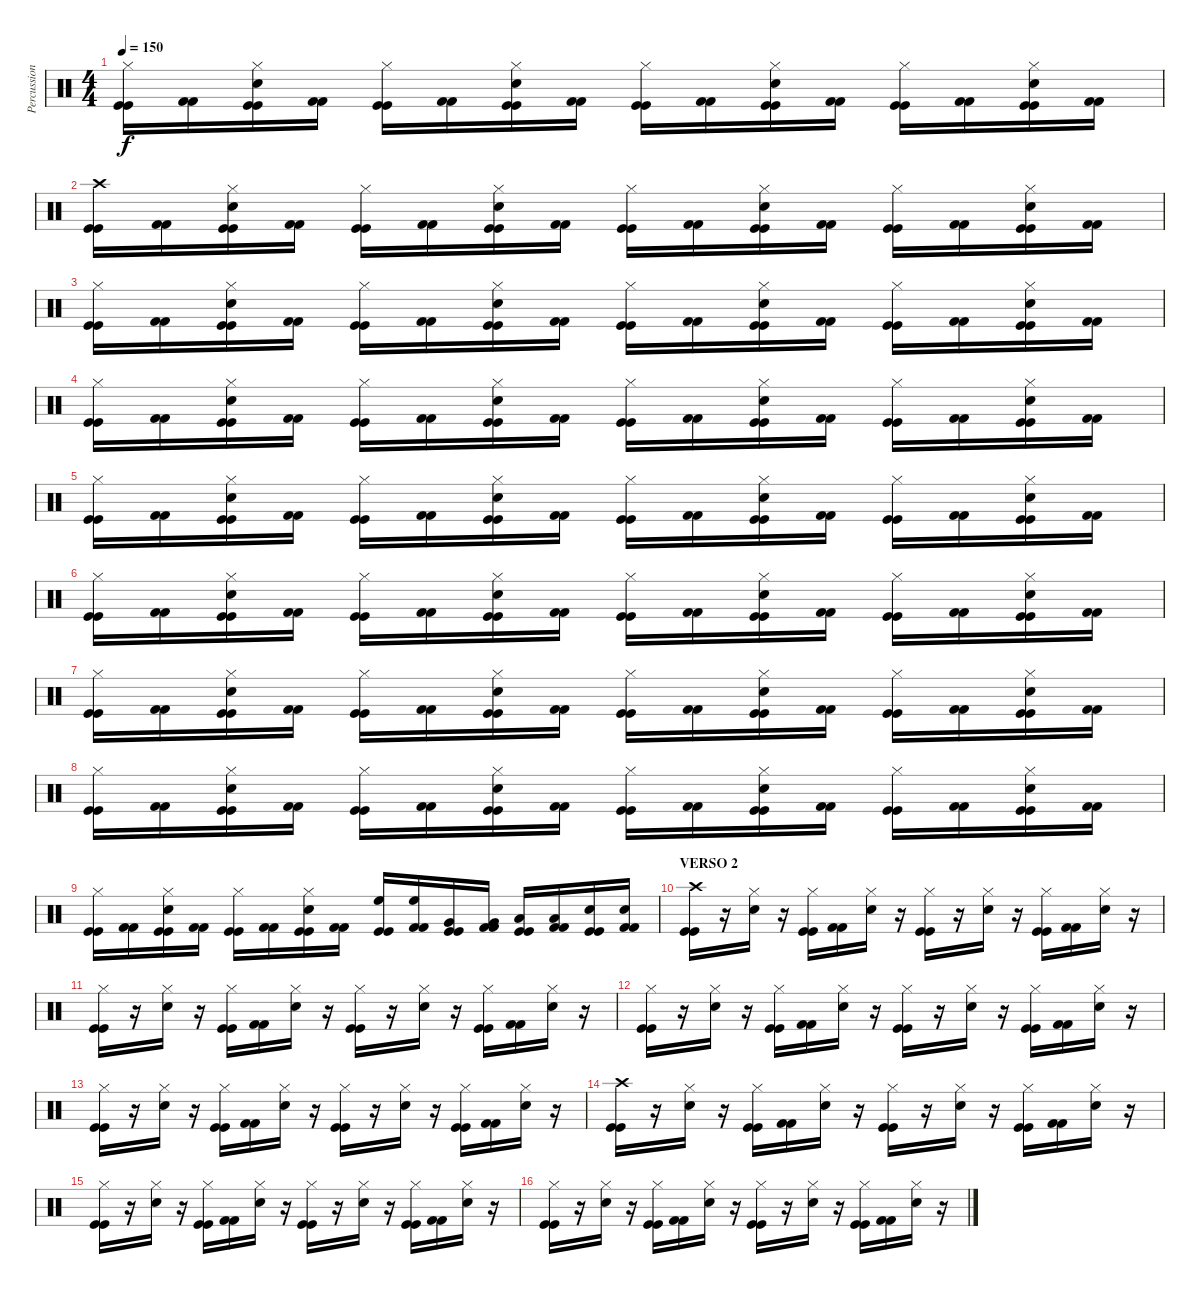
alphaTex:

\track ("Percussion" "Percussion") {instrument percussion}
\staff {score}
\articulation defaults
\ts (4 4)
\tempo 150
\clef neutral
\ks c
("Hi-Hat (closed)" "Kick (hit)" "Kick (hit)").16{dy f} ("Kick (hit) 2" "Kick (hit) 2").16 ("Hi-Hat (closed)" "Electric Snare (hit)" "Kick (hit)" "Kick (hit)").16 ("Kick (hit) 2" "Kick (hit) 2").16 ("Hi-Hat (closed)" "Kick (hit)" "Kick (hit)").16 ("Kick (hit) 2" "Kick (hit) 2").16 ("Hi-Hat (closed)" "Electric Snare (hit)" "Kick (hit)" "Kick (hit)").16 ("Kick (hit) 2" "Kick (hit) 2").16 ("Hi-Hat (closed)" "Kick (hit)" "Kick (hit)").16 ("Kick (hit) 2" "Kick (hit) 2").16 ("Hi-Hat (closed)" "Electric Snare (hit)" "Kick (hit)" "Kick (hit)").16 ("Kick (hit) 2" "Kick (hit) 2").16 ("Hi-Hat (closed)" "Kick (hit)" "Kick (hit)").16 ("Kick (hit) 2" "Kick (hit) 2").16 ("Hi-Hat (closed)" "Electric Snare (hit)" "Kick (hit)" "Kick (hit)").16 ("Kick (hit) 2" "Kick (hit) 2").16 |
("Crash high (hit)" "Kick (hit)" "Kick (hit)").16 ("Kick (hit) 2" "Kick (hit) 2").16 ("Hi-Hat (closed)" "Electric Snare (hit)" "Kick (hit)" "Kick (hit)").16 ("Kick (hit) 2" "Kick (hit) 2").16 ("Hi-Hat (closed)" "Kick (hit)" "Kick (hit)").16 ("Kick (hit) 2" "Kick (hit) 2").16 ("Hi-Hat (closed)" "Electric Snare (hit)" "Kick (hit)" "Kick (hit)").16 ("Kick (hit) 2" "Kick (hit) 2").16 ("Hi-Hat (closed)" "Kick (hit)" "Kick (hit)").16 ("Kick (hit) 2" "Kick (hit) 2").16 ("Hi-Hat (closed)" "Electric Snare (hit)" "Kick (hit)" "Kick (hit)").16 ("Kick (hit) 2" "Kick (hit) 2").16 ("Hi-Hat (closed)" "Kick (hit)" "Kick (hit)").16 ("Kick (hit) 2" "Kick (hit) 2").16 ("Hi-Hat (closed)" "Electric Snare (hit)" "Kick (hit)" "Kick (hit)").16 ("Kick (hit) 2" "Kick (hit) 2").16 |
("Hi-Hat (closed)" "Kick (hit)" "Kick (hit)").16 ("Kick (hit) 2" "Kick (hit) 2").16 ("Hi-Hat (closed)" "Electric Snare (hit)" "Kick (hit)" "Kick (hit)").16 ("Kick (hit) 2" "Kick (hit) 2").16 ("Hi-Hat (closed)" "Kick (hit)" "Kick (hit)").16 ("Kick (hit) 2" "Kick (hit) 2").16 ("Hi-Hat (closed)" "Electric Snare (hit)" "Kick (hit)" "Kick (hit)").16 ("Kick (hit) 2" "Kick (hit) 2").16 ("Hi-Hat (closed)" "Kick (hit)" "Kick (hit)").16 ("Kick (hit) 2" "Kick (hit) 2").16 ("Hi-Hat (closed)" "Electric Snare (hit)" "Kick (hit)" "Kick (hit)").16 ("Kick (hit) 2" "Kick (hit) 2").16 ("Hi-Hat (closed)" "Kick (hit)" "Kick (hit)").16 ("Kick (hit) 2" "Kick (hit) 2").16 ("Hi-Hat (closed)" "Electric Snare (hit)" "Kick (hit)" "Kick (hit)").16 ("Kick (hit) 2" "Kick (hit) 2").16 |
("Hi-Hat (closed)" "Kick (hit)" "Kick (hit)").16 ("Kick (hit) 2" "Kick (hit) 2").16 ("Hi-Hat (closed)" "Electric Snare (hit)" "Kick (hit)" "Kick (hit)").16 ("Kick (hit) 2" "Kick (hit) 2").16 ("Hi-Hat (closed)" "Kick (hit)" "Kick (hit)").16 ("Kick (hit) 2" "Kick (hit) 2").16 ("Hi-Hat (closed)" "Electric Snare (hit)" "Kick (hit)" "Kick (hit)").16 ("Kick (hit) 2" "Kick (hit) 2").16 ("Hi-Hat (closed)" "Kick (hit)" "Kick (hit)").16 ("Kick (hit) 2" "Kick (hit) 2").16 ("Hi-Hat (closed)" "Electric Snare (hit)" "Kick (hit)" "Kick (hit)").16 ("Kick (hit) 2" "Kick (hit) 2").16 ("Hi-Hat (closed)" "Kick (hit)" "Kick (hit)").16 ("Kick (hit) 2" "Kick (hit) 2").16 ("Hi-Hat (closed)" "Electric Snare (hit)" "Kick (hit)" "Kick (hit)").16 ("Kick (hit) 2" "Kick (hit) 2").16 |
("Hi-Hat (closed)" "Kick (hit)" "Kick (hit)").16 ("Kick (hit) 2" "Kick (hit) 2").16 ("Hi-Hat (closed)" "Electric Snare (hit)" "Kick (hit)" "Kick (hit)").16 ("Kick (hit) 2" "Kick (hit) 2").16 ("Hi-Hat (closed)" "Kick (hit)" "Kick (hit)").16 ("Kick (hit) 2" "Kick (hit) 2").16 ("Hi-Hat (closed)" "Electric Snare (hit)" "Kick (hit)" "Kick (hit)").16 ("Kick (hit) 2" "Kick (hit) 2").16 ("Hi-Hat (closed)" "Kick (hit)" "Kick (hit)").16 ("Kick (hit) 2" "Kick (hit) 2").16 ("Hi-Hat (closed)" "Electric Snare (hit)" "Kick (hit)" "Kick (hit)").16 ("Kick (hit) 2" "Kick (hit) 2").16 ("Hi-Hat (closed)" "Kick (hit)" "Kick (hit)").16 ("Kick (hit) 2" "Kick (hit) 2").16 ("Hi-Hat (closed)" "Electric Snare (hit)" "Kick (hit)" "Kick (hit)").16 ("Kick (hit) 2" "Kick (hit) 2").16 |
("Hi-Hat (closed)" "Kick (hit)" "Kick (hit)").16 ("Kick (hit) 2" "Kick (hit) 2").16 ("Hi-Hat (closed)" "Electric Snare (hit)" "Kick (hit)" "Kick (hit)").16 ("Kick (hit) 2" "Kick (hit) 2").16 ("Hi-Hat (closed)" "Kick (hit)" "Kick (hit)").16 ("Kick (hit) 2" "Kick (hit) 2").16 ("Hi-Hat (closed)" "Electric Snare (hit)" "Kick (hit)" "Kick (hit)").16 ("Kick (hit) 2" "Kick (hit) 2").16 ("Hi-Hat (closed)" "Kick (hit)" "Kick (hit)").16 ("Kick (hit) 2" "Kick (hit) 2").16 ("Hi-Hat (closed)" "Electric Snare (hit)" "Kick (hit)" "Kick (hit)").16 ("Kick (hit) 2" "Kick (hit) 2").16 ("Hi-Hat (closed)" "Kick (hit)" "Kick (hit)").16 ("Kick (hit) 2" "Kick (hit) 2").16 ("Hi-Hat (closed)" "Electric Snare (hit)" "Kick (hit)" "Kick (hit)").16 ("Kick (hit) 2" "Kick (hit) 2").16 |
("Hi-Hat (closed)" "Kick (hit)" "Kick (hit)").16 ("Kick (hit) 2" "Kick (hit) 2").16 ("Hi-Hat (closed)" "Electric Snare (hit)" "Kick (hit)" "Kick (hit)").16 ("Kick (hit) 2" "Kick (hit) 2").16 ("Hi-Hat (closed)" "Kick (hit)" "Kick (hit)").16 ("Kick (hit) 2" "Kick (hit) 2").16 ("Hi-Hat (closed)" "Electric Snare (hit)" "Kick (hit)" "Kick (hit)").16 ("Kick (hit) 2" "Kick (hit) 2").16 ("Hi-Hat (closed)" "Kick (hit)" "Kick (hit)").16 ("Kick (hit) 2" "Kick (hit) 2").16 ("Hi-Hat (closed)" "Electric Snare (hit)" "Kick (hit)" "Kick (hit)").16 ("Kick (hit) 2" "Kick (hit) 2").16 ("Hi-Hat (closed)" "Kick (hit)" "Kick (hit)").16 ("Kick (hit) 2" "Kick (hit) 2").16 ("Hi-Hat (closed)" "Electric Snare (hit)" "Kick (hit)" "Kick (hit)").16 ("Kick (hit) 2" "Kick (hit) 2").16 |
("Hi-Hat (closed)" "Kick (hit)" "Kick (hit)").16 ("Kick (hit) 2" "Kick (hit) 2").16 ("Hi-Hat (closed)" "Electric Snare (hit)" "Kick (hit)" "Kick (hit)").16 ("Kick (hit) 2" "Kick (hit) 2").16 ("Hi-Hat (closed)" "Kick (hit)" "Kick (hit)").16 ("Kick (hit) 2" "Kick (hit) 2").16 ("Hi-Hat (closed)" "Electric Snare (hit)" "Kick (hit)" "Kick (hit)").16 ("Kick (hit) 2" "Kick (hit) 2").16 ("Hi-Hat (closed)" "Kick (hit)" "Kick (hit)").16 ("Kick (hit) 2" "Kick (hit) 2").16 ("Hi-Hat (closed)" "Electric Snare (hit)" "Kick (hit)" "Kick (hit)").16 ("Kick (hit) 2" "Kick (hit) 2").16 ("Hi-Hat (closed)" "Kick (hit)" "Kick (hit)").16 ("Kick (hit) 2" "Kick (hit) 2").16 ("Hi-Hat (closed)" "Electric Snare (hit)" "Kick (hit)" "Kick (hit)").16 ("Kick (hit) 2" "Kick (hit) 2").16 |
("Hi-Hat (closed)" "Kick (hit)" "Kick (hit)").16 ("Kick (hit) 2" "Kick (hit) 2").16 ("Hi-Hat (closed)" "Electric Snare (hit)" "Kick (hit)" "Kick (hit)").16 ("Kick (hit) 2" "Kick (hit) 2").16 ("Hi-Hat (closed)" "Kick (hit)" "Kick (hit)").16 ("Kick (hit) 2" "Kick (hit) 2").16 ("Hi-Hat (closed)" "Electric Snare (hit)" "Kick (hit)" "Kick (hit)").16 ("Kick (hit) 2" "Kick (hit) 2").16 ("High Floor Tom (hit)" "Kick (hit)" "Kick (hit)").16 ("High Floor Tom (hit)" "Kick (hit) 2" "Kick (hit) 2").16 ("Very Low Tom (hit)" "Kick (hit)" "Kick (hit)").16 ("Very Low Tom (hit)" "Kick (hit) 2" "Kick (hit) 2").16 ("Low Tom (hit)" "Kick (hit)" "Kick (hit)").16 ("Low Tom (hit)" "Kick (hit) 2" "Kick (hit) 2").16 ("Electric Snare (hit)" "Kick (hit)" "Kick (hit)").16 ("Electric Snare (hit)" "Kick (hit) 2" "Kick (hit) 2").16 |
\section ("" "VERSO 2")
("Crash high (hit)" "Kick (hit)" "Kick (hit)").16 r.16 ("Hi-Hat (closed)" "Electric Snare (hit)").16 r.16 ("Hi-Hat (closed)" "Kick (hit)" "Kick (hit)").16 ("Kick (hit) 2" "Kick (hit) 2").16 ("Hi-Hat (closed)" "Electric Snare (hit)").16 r.16 ("Hi-Hat (closed)" "Kick (hit)" "Kick (hit)").16 r.16 ("Hi-Hat (closed)" "Electric Snare (hit)").16 r.16 ("Hi-Hat (closed)" "Kick (hit)" "Kick (hit)").16 ("Kick (hit) 2" "Kick (hit) 2").16 ("Hi-Hat (closed)" "Electric Snare (hit)").16 r.16 |
("Hi-Hat (closed)" "Kick (hit)" "Kick (hit)").16 r.16 ("Hi-Hat (closed)" "Electric Snare (hit)").16 r.16 ("Hi-Hat (closed)" "Kick (hit)" "Kick (hit)").16 ("Kick (hit) 2" "Kick (hit) 2").16 ("Hi-Hat (closed)" "Electric Snare (hit)").16 r.16 ("Hi-Hat (closed)" "Kick (hit)" "Kick (hit)").16 r.16 ("Hi-Hat (closed)" "Electric Snare (hit)").16 r.16 ("Hi-Hat (closed)" "Kick (hit)" "Kick (hit)").16 ("Kick (hit) 2" "Kick (hit) 2").16 ("Hi-Hat (closed)" "Electric Snare (hit)").16 r.16 |
("Hi-Hat (closed)" "Kick (hit)" "Kick (hit)").16 r.16 ("Hi-Hat (closed)" "Electric Snare (hit)").16 r.16 ("Hi-Hat (closed)" "Kick (hit)" "Kick (hit)").16 ("Kick (hit) 2" "Kick (hit) 2").16 ("Hi-Hat (closed)" "Electric Snare (hit)").16 r.16 ("Hi-Hat (closed)" "Kick (hit)" "Kick (hit)").16 r.16 ("Hi-Hat (closed)" "Electric Snare (hit)").16 r.16 ("Hi-Hat (closed)" "Kick (hit)" "Kick (hit)").16 ("Kick (hit) 2" "Kick (hit) 2").16 ("Hi-Hat (closed)" "Electric Snare (hit)").16 r.16 |
("Hi-Hat (closed)" "Kick (hit)" "Kick (hit)").16 r.16 ("Hi-Hat (closed)" "Electric Snare (hit)").16 r.16 ("Hi-Hat (closed)" "Kick (hit)" "Kick (hit)").16 ("Kick (hit) 2" "Kick (hit) 2").16 ("Hi-Hat (closed)" "Electric Snare (hit)").16 r.16 ("Hi-Hat (closed)" "Kick (hit)" "Kick (hit)").16 r.16 ("Hi-Hat (closed)" "Electric Snare (hit)").16 r.16 ("Hi-Hat (closed)" "Kick (hit)" "Kick (hit)").16 ("Kick (hit) 2" "Kick (hit) 2").16 ("Hi-Hat (closed)" "Electric Snare (hit)").16 r.16 |
("Crash high (hit)" "Kick (hit)" "Kick (hit)").16 r.16 ("Hi-Hat (closed)" "Electric Snare (hit)").16 r.16 ("Hi-Hat (closed)" "Kick (hit)" "Kick (hit)").16 ("Kick (hit) 2" "Kick (hit) 2").16 ("Hi-Hat (closed)" "Electric Snare (hit)").16 r.16 ("Hi-Hat (closed)" "Kick (hit)" "Kick (hit)").16 r.16 ("Hi-Hat (closed)" "Electric Snare (hit)").16 r.16 ("Hi-Hat (closed)" "Kick (hit)" "Kick (hit)").16 ("Kick (hit) 2" "Kick (hit) 2").16 ("Hi-Hat (closed)" "Electric Snare (hit)").16 r.16 |
("Hi-Hat (closed)" "Kick (hit)" "Kick (hit)").16 r.16 ("Hi-Hat (closed)" "Electric Snare (hit)").16 r.16 ("Hi-Hat (closed)" "Kick (hit)" "Kick (hit)").16 ("Kick (hit) 2" "Kick (hit) 2").16 ("Hi-Hat (closed)" "Electric Snare (hit)").16 r.16 ("Hi-Hat (closed)" "Kick (hit)" "Kick (hit)").16 r.16 ("Hi-Hat (closed)" "Electric Snare (hit)").16 r.16 ("Hi-Hat (closed)" "Kick (hit)" "Kick (hit)").16 ("Kick (hit) 2" "Kick (hit) 2").16 ("Hi-Hat (closed)" "Electric Snare (hit)").16 r.16 |
("Hi-Hat (closed)" "Kick (hit)" "Kick (hit)").16 r.16 ("Hi-Hat (closed)" "Electric Snare (hit)").16 r.16 ("Hi-Hat (closed)" "Kick (hit)" "Kick (hit)").16 ("Kick (hit) 2" "Kick (hit) 2").16 ("Hi-Hat (closed)" "Electric Snare (hit)").16 r.16 ("Hi-Hat (closed)" "Kick (hit)" "Kick (hit)").16 r.16 ("Hi-Hat (closed)" "Electric Snare (hit)").16 r.16 ("Hi-Hat (closed)" "Kick (hit)" "Kick (hit)").16 ("Kick (hit) 2" "Kick (hit) 2").16 ("Hi-Hat (closed)" "Electric Snare (hit)").16 r.16
